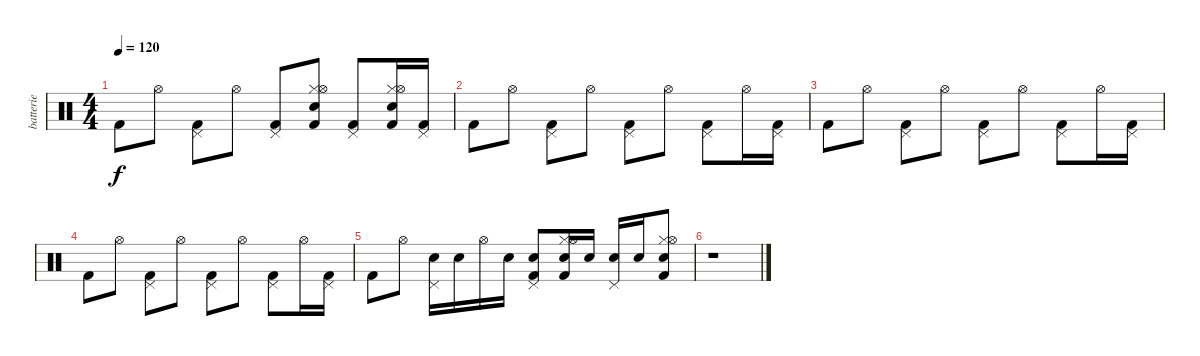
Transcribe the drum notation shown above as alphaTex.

\track ("batterie" "batterie") {instrument percussion}
\staff {score}
\articulation defaults
\ts (4 4)
\tempo 120
\clef neutral
\ks c "Kick (hit) 2".8{dy f} "Hi-Hat (open)".8
("Kick (hit) 2" "Pedal Hi-Hat (hit)").8 "Hi-Hat (open)".8 ("Kick (hit) 2" "Pedal Hi-Hat (hit)").8 ("Kick (hit) 2" "Hi-Hat (closed)" "Electric Snare (hit)" "Hi-Hat (open)").8 ("Kick (hit) 2" "Pedal Hi-Hat (hit)").8 ("Kick (hit) 2" "Hi-Hat (closed)" "Electric Snare (hit)" "Hi-Hat (open)").16 ("Kick (hit) 2" "Pedal Hi-Hat (hit)").16 |
"Kick (hit) 2".8 "Hi-Hat (open)".8 ("Kick (hit) 2" "Pedal Hi-Hat (hit)").8 "Hi-Hat (open)".8 ("Kick (hit) 2" "Pedal Hi-Hat (hit)").8 "Hi-Hat (open)".8 ("Kick (hit) 2" "Pedal Hi-Hat (hit)").8 "Hi-Hat (open)".16 ("Kick (hit) 2" "Pedal Hi-Hat (hit)").16 |
"Kick (hit) 2".8 "Hi-Hat (open)".8 ("Kick (hit) 2" "Pedal Hi-Hat (hit)").8 "Hi-Hat (open)".8 ("Kick (hit) 2" "Pedal Hi-Hat (hit)").8 "Hi-Hat (open)".8 ("Kick (hit) 2" "Pedal Hi-Hat (hit)").8 "Hi-Hat (open)".16 ("Kick (hit) 2" "Pedal Hi-Hat (hit)").16 |
"Kick (hit) 2".8 "Hi-Hat (open)".8 ("Kick (hit) 2" "Pedal Hi-Hat (hit)").8 "Hi-Hat (open)".8 ("Kick (hit) 2" "Pedal Hi-Hat (hit)").8 "Hi-Hat (open)".8 ("Kick (hit) 2" "Pedal Hi-Hat (hit)").8 "Hi-Hat (open)".16 ("Kick (hit) 2" "Pedal Hi-Hat (hit)").16 |
"Kick (hit) 2".8 "Hi-Hat (open)".8 ("Electric Snare (hit)" "Pedal Hi-Hat (hit)").16 "Electric Snare (hit)".16 "Hi-Hat (open)".16 "Electric Snare (hit)".16 ("Electric Snare (hit)" "Kick (hit) 2" "Pedal Hi-Hat (hit)").8 ("Kick (hit) 2" "Electric Snare (hit)" "Hi-Hat (closed)" "Hi-Hat (open)").16 "Electric Snare (hit)".16 ("Electric Snare (hit)" "Pedal Hi-Hat (hit)").16 "Electric Snare (hit)".16 ("Kick (hit) 2" "Electric Snare (hit)" "Hi-Hat (closed)" "Hi-Hat (open)").8 |
r.1
